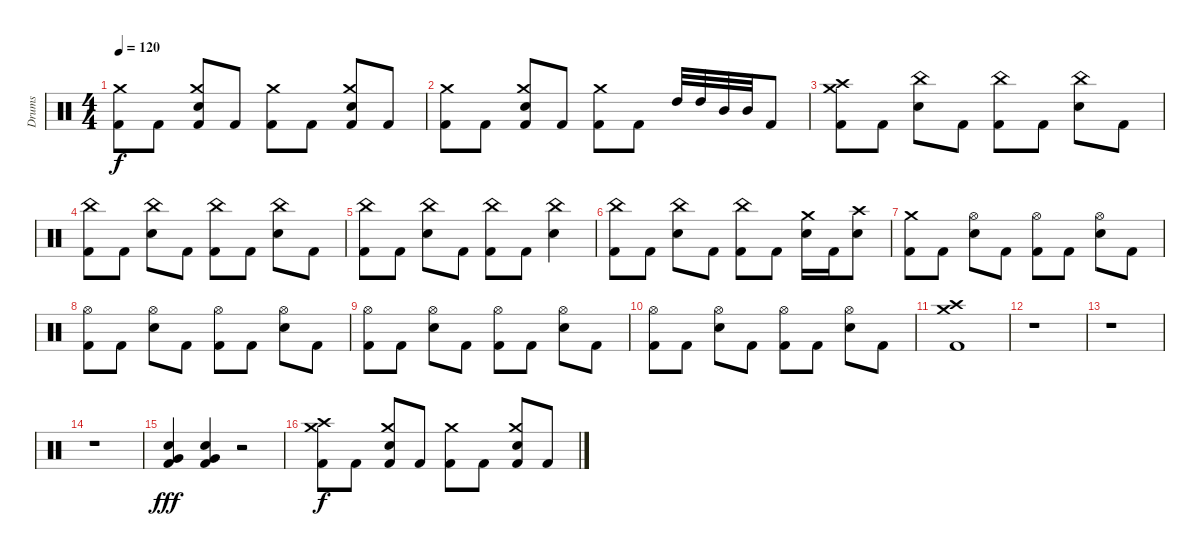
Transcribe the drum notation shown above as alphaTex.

\track ("Drums" "Drums") {instrument percussion}
\staff {score}
\articulation defaults
\ts (4 4)
\tempo 120
\clef neutral
\ks c
("Kick (hit) 2" "Crash medium (hit)").8{dy f} "Kick (hit) 2".8 ("Kick (hit) 2" "Snare (hit) 2" "Crash medium (hit)").8 "Kick (hit) 2".8 ("Kick (hit) 2" "Crash medium (hit)").8 "Kick (hit) 2".8 ("Kick (hit) 2" "Snare (hit) 2" "Crash medium (hit)").8 "Kick (hit) 2".8 |
("Kick (hit) 2" "Crash medium (hit)").8 "Kick (hit) 2".8 ("Kick (hit) 2" "Snare (hit) 2" "Crash medium (hit)").8 "Kick (hit) 2".8 ("Kick (hit) 2" "Crash medium (hit)").8 "Kick (hit) 2".8 "High Tom (hit)".32 "High Tom (hit)".32 "Mid Tom (hit)".32 "Mid Tom (hit)".32 "Kick (hit) 2".8 |
("Kick (hit) 2" "Crash high (hit)" "Crash medium (hit)").8 "Kick (hit) 2".8 ("Snare (hit) 2" "China (hit)").8 "Kick (hit) 2".8 ("Kick (hit) 2" "China (hit)").8 "Kick (hit) 2".8 ("Snare (hit) 2" "China (hit)").8 "Kick (hit) 2".8 |
("Kick (hit) 2" "China (hit)").8 "Kick (hit) 2".8 ("Snare (hit) 2" "China (hit)").8 "Kick (hit) 2".8 ("Kick (hit) 2" "China (hit)").8 "Kick (hit) 2".8 ("Snare (hit) 2" "China (hit)").8 "Kick (hit) 2".8 |
("Kick (hit) 2" "China (hit)").8 "Kick (hit) 2".8 ("Snare (hit) 2" "China (hit)").8 "Kick (hit) 2".8 ("Kick (hit) 2" "China (hit)").8 "Kick (hit) 2".8 ("Snare (hit) 2" "China (hit)").4 |
("Kick (hit) 2" "China (hit)").8 "Kick (hit) 2".8 ("Snare (hit) 2" "China (hit)").8 "Kick (hit) 2".8 ("Kick (hit) 2" "China (hit)").8 "Kick (hit) 2".8 ("Snare (hit) 2" "Crash medium (hit)").16 "Kick (hit) 2".16 ("Snare (hit) 2" "Crash high (hit)").8 |
("Kick (hit) 2" "Crash medium (hit)").8 "Kick (hit) 2".8 ("Snare (hit) 2" "Hi-Hat (open)").8 "Kick (hit) 2".8 ("Kick (hit) 2" "Hi-Hat (open)").8 "Kick (hit) 2".8 ("Snare (hit) 2" "Hi-Hat (open)").8 "Kick (hit) 2".8 |
("Kick (hit) 2" "Hi-Hat (open)").8 "Kick (hit) 2".8 ("Snare (hit) 2" "Hi-Hat (open)").8 "Kick (hit) 2".8 ("Kick (hit) 2" "Hi-Hat (open)").8 "Kick (hit) 2".8 ("Snare (hit) 2" "Hi-Hat (open)").8 "Kick (hit) 2".8 |
("Kick (hit) 2" "Hi-Hat (open)").8 "Kick (hit) 2".8 ("Snare (hit) 2" "Hi-Hat (open)").8 "Kick (hit) 2".8 ("Kick (hit) 2" "Hi-Hat (open)").8 "Kick (hit) 2".8 ("Snare (hit) 2" "Hi-Hat (open)").8 "Kick (hit) 2".8 |
("Kick (hit) 2" "Hi-Hat (open)").8 "Kick (hit) 2".8 ("Snare (hit) 2" "Hi-Hat (open)").8 "Kick (hit) 2".8 ("Kick (hit) 2" "Hi-Hat (open)").8 "Kick (hit) 2".8 ("Snare (hit) 2" "Hi-Hat (open)").8 "Kick (hit) 2".8 |
("Kick (hit) 2" "Crash high (hit)" "Crash medium (hit)").1 |
r.1 |
r.1 |
r.1 |
("Kick (hit) 2" "Snare (hit) 2" "Very Low Tom (hit)").4{dy fff} ("Kick (hit) 2" "Snare (hit) 2" "Very Low Tom (hit)").4 r.2 |
("Kick (hit) 2" "Crash high (hit)" "Crash medium (hit)").8{dy f} "Kick (hit) 2".8 ("Kick (hit) 2" "Snare (hit) 2" "Crash medium (hit)").8 "Kick (hit) 2".8 ("Kick (hit) 2" "Crash medium (hit)").8 "Kick (hit) 2".8 ("Kick (hit) 2" "Snare (hit) 2" "Crash medium (hit)").8 "Kick (hit) 2".8
